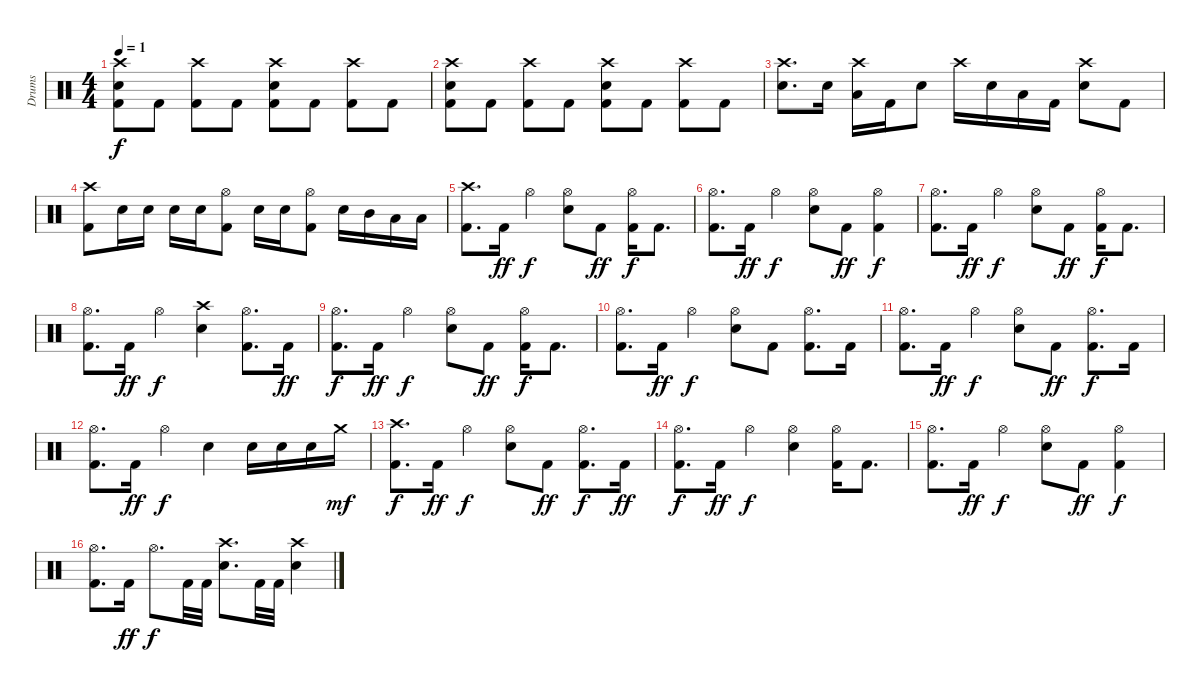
\track ("Drums" "Drums") {instrument percussion}
\staff {score}
\articulation defaults
\ts (4 4)
\tempo 1
\clef neutral
\ks c
("Crash high (hit)" "Snare (hit) 2" "Kick (hit) 2").8{dy f} "Kick (hit) 2".8 ("Crash high (hit)" "Kick (hit) 2").8 "Kick (hit) 2".8 ("Crash high (hit)" "Snare (hit) 2" "Kick (hit) 2").8 "Kick (hit) 2".8 ("Crash high (hit)" "Kick (hit) 2").8 "Kick (hit) 2".8 |
("Crash high (hit)" "Snare (hit) 2" "Kick (hit) 2").8 "Kick (hit) 2".8 ("Crash high (hit)" "Kick (hit) 2").8 "Kick (hit) 2".8 ("Crash high (hit)" "Snare (hit) 2" "Kick (hit) 2").8 "Kick (hit) 2".8 ("Crash high (hit)" "Kick (hit) 2").8 "Kick (hit) 2".8 |
("Crash high (hit)" "Snare (hit) 2").8{d} "Snare (hit) 2".16 ("Crash high (hit)" "Low Tom (hit)").16 "Kick (hit) 2".16 "Snare (hit) 2".8 "Crash high (hit)".16 "Snare (hit) 2".16 "Low Tom (hit)".16 "Kick (hit) 2".16 ("Crash high (hit)" "Snare (hit) 2").8 "Kick (hit) 2".8 |
("Crash high (hit)" "Kick (hit) 2").8 "Snare (hit) 2".16 "Snare (hit) 2".16 "Snare (hit) 2".16 "Snare (hit) 2".16 ("Hi-Hat (open)" "Kick (hit) 2").8 "Snare (hit) 2".16 "Snare (hit) 2".16 ("Hi-Hat (open)" "Kick (hit) 2").8 "Snare (hit) 2".16 "Mid Tom (hit)".16 "Low Tom (hit)".16 "Low Tom (hit)".16 |
("Crash high (hit)" "Kick (hit) 2").8{d} "Kick (hit) 2".16{dy ff} "Hi-Hat (open)".4{dy f} ("Hi-Hat (open)" "Snare (hit) 2").8 "Kick (hit) 2".8{dy ff} ("Hi-Hat (open)" "Kick (hit) 2").16{dy f} "Kick (hit) 2".8{d} |
("Hi-Hat (open)" "Kick (hit) 2").8{d} "Kick (hit) 2".16{dy ff} "Hi-Hat (open)".4{dy f} ("Hi-Hat (open)" "Snare (hit) 2").8 "Kick (hit) 2".8{dy ff} ("Hi-Hat (open)" "Kick (hit) 2").4{dy f} |
("Hi-Hat (open)" "Kick (hit) 2").8{d} "Kick (hit) 2".16{dy ff} "Hi-Hat (open)".4{dy f} ("Hi-Hat (open)" "Snare (hit) 2").8 "Kick (hit) 2".8{dy ff} ("Hi-Hat (open)" "Kick (hit) 2").16{dy f} "Kick (hit) 2".8{d} |
("Hi-Hat (open)" "Kick (hit) 2").8{d} "Kick (hit) 2".16{dy ff} "Hi-Hat (open)".4{dy f} ("Crash high (hit)" "Snare (hit) 2").4 ("Hi-Hat (open)" "Kick (hit) 2").8{d} "Kick (hit) 2".16{dy ff} |
("Hi-Hat (open)" "Kick (hit) 2").8{d dy f} "Kick (hit) 2".16{dy ff} "Hi-Hat (open)".4{dy f} ("Hi-Hat (open)" "Snare (hit) 2").8 "Kick (hit) 2".8{dy ff} ("Hi-Hat (open)" "Kick (hit) 2").16{dy f} "Kick (hit) 2".8{d} |
("Hi-Hat (open)" "Kick (hit) 2").8{d} "Kick (hit) 2".16{dy ff} "Hi-Hat (open)".4{dy f} ("Hi-Hat (open)" "Snare (hit) 2").8 "Kick (hit) 2".8 ("Hi-Hat (open)" "Kick (hit) 2").8{d} "Kick (hit) 2".16 |
("Hi-Hat (open)" "Kick (hit) 2").8{d} "Kick (hit) 2".16{dy ff} "Hi-Hat (open)".4{dy f} ("Hi-Hat (open)" "Snare (hit) 2").8 "Kick (hit) 2".8{dy ff} ("Hi-Hat (open)" "Kick (hit) 2").8{d dy f} "Kick (hit) 2".16 |
("Hi-Hat (open)" "Kick (hit) 2").8{d} "Kick (hit) 2".16{dy ff} "Hi-Hat (open)".4{dy f} "Snare (hit) 2".4 "Snare (hit) 2".16 "Snare (hit) 2".16 "Snare (hit) 2".16 "Crash medium (hit)".16{dy mf} |
("Crash high (hit)" "Kick (hit) 2").8{d dy f} "Kick (hit) 2".16{dy ff} "Hi-Hat (open)".4{dy f} ("Hi-Hat (open)" "Snare (hit) 2").8 "Kick (hit) 2".8{dy ff} ("Hi-Hat (open)" "Kick (hit) 2").8{d dy f} "Kick (hit) 2".16{dy ff} |
("Hi-Hat (open)" "Kick (hit) 2").8{d dy f} "Kick (hit) 2".16{dy ff} "Hi-Hat (open)".4{dy f} ("Hi-Hat (open)" "Snare (hit) 2").4 ("Hi-Hat (open)" "Kick (hit) 2").16 "Kick (hit) 2".8{d} |
("Hi-Hat (open)" "Kick (hit) 2").8{d} "Kick (hit) 2".16{dy ff} "Hi-Hat (open)".4{dy f} ("Hi-Hat (open)" "Snare (hit) 2").8 "Kick (hit) 2".8{dy ff} ("Hi-Hat (open)" "Kick (hit) 2").4{dy f} |
("Hi-Hat (open)" "Kick (hit) 2").8{d} "Kick (hit) 2".16{dy ff} "Hi-Hat (open)".8{d dy f} "Kick (hit) 2".32 "Kick (hit) 2".32 ("Crash high (hit)" "Snare (hit) 2").8{d} "Kick (hit) 2".32 "Kick (hit) 2".32 ("Crash high (hit)" "Snare (hit) 2").4
